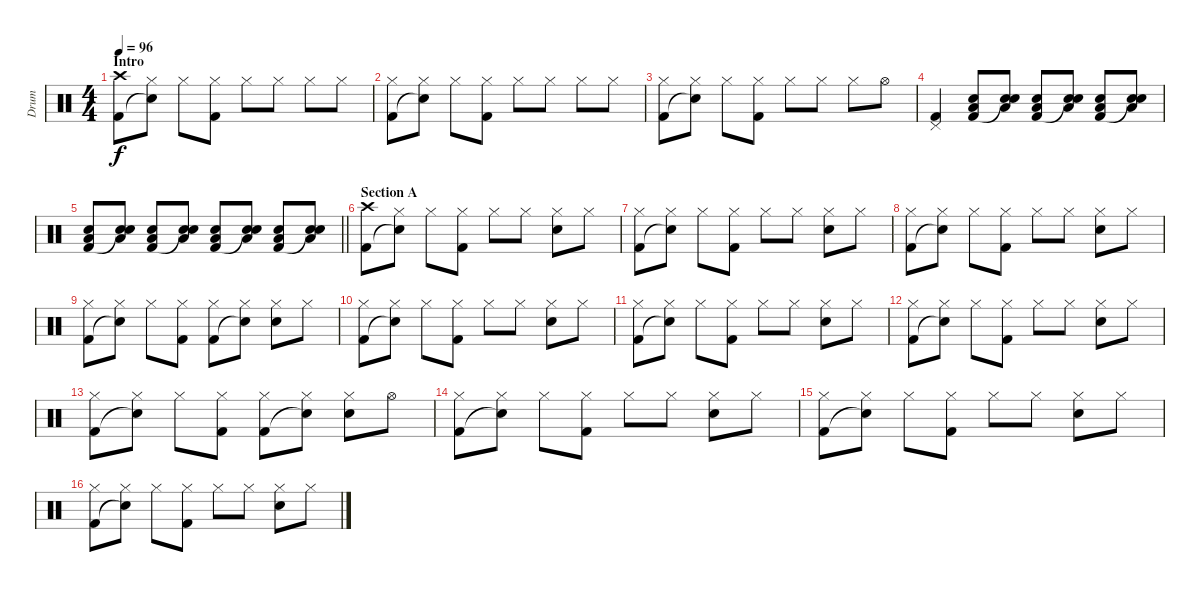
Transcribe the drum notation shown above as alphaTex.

\track ("Drum" "Drum") {instrument percussion}
\staff {score}
\articulation defaults
\ts (4 4)
\section ("" "Intro")
\tempo 96
\clef neutral
\ks c
("Crash high (hit)" "Kick (hit) 2").8{dy f} ("Hi-Hat (closed)" "Snare (hit)"{t}).8 "Hi-Hat (closed)".8 ("Hi-Hat (closed)" "Kick (hit) 2").8 "Hi-Hat (closed)".8 "Hi-Hat (closed)".8 "Hi-Hat (closed)".8 "Hi-Hat (closed)".8 |
("Hi-Hat (closed)" "Kick (hit) 2").8 ("Hi-Hat (closed)" "Snare (hit)"{t}).8 "Hi-Hat (closed)".8 ("Hi-Hat (closed)" "Kick (hit) 2").8 "Hi-Hat (closed)".8 "Hi-Hat (closed)".8 "Hi-Hat (closed)".8 "Hi-Hat (closed)".8 |
("Hi-Hat (closed)" "Kick (hit) 2").8 ("Hi-Hat (closed)" "Snare (hit)"{t}).8 "Hi-Hat (closed)".8 ("Hi-Hat (closed)" "Kick (hit) 2").8 "Hi-Hat (closed)".8 "Hi-Hat (closed)".8 "Hi-Hat (closed)".8 "Hi-Hat (open)".8 |
("Pedal Hi-Hat (hit)" "Kick (hit) 2").4 ("Snare (hit) 2" "Low Tom (hit)" "Kick (hit) 2").8 ("Snare (hit) 2" "Low Tom (hit)" "Snare (hit)"{t}).8 ("Snare (hit) 2" "Low Tom (hit)" "Kick (hit) 2").8 ("Snare (hit) 2" "Low Tom (hit)" "Snare (hit)"{t}).8 ("Snare (hit) 2" "Low Tom (hit)" "Kick (hit) 2").8 ("Snare (hit) 2" "Low Tom (hit)" "Snare (hit)"{t}).8 |
\barLineRight lightlight
("Snare (hit) 2" "Low Tom (hit)" "Kick (hit) 2").8 ("Snare (hit) 2" "Low Tom (hit)" "Snare (hit)"{t}).8 ("Snare (hit) 2" "Low Tom (hit)" "Kick (hit) 2").8 ("Snare (hit) 2" "Low Tom (hit)" "Snare (hit)"{t}).8 ("Snare (hit) 2" "Low Tom (hit)" "Kick (hit) 2").8 ("Snare (hit) 2" "Low Tom (hit)" "Snare (hit)"{t}).8 ("Snare (hit) 2" "Low Tom (hit)" "Kick (hit) 2").8 ("Snare (hit) 2" "Low Tom (hit)" "Snare (hit)"{t}).8 |
\section ("" "Section A")
("Crash high (hit)" "Kick (hit) 2").8 ("Hi-Hat (closed)" "Snare (hit)"{t}).8 "Hi-Hat (closed)".8 ("Hi-Hat (closed)" "Kick (hit) 2").8 "Hi-Hat (closed)".8 "Hi-Hat (closed)".8 ("Hi-Hat (closed)" "Snare (hit) 2").8 "Hi-Hat (closed)".8 |
("Hi-Hat (closed)" "Kick (hit) 2").8 ("Hi-Hat (closed)" "Snare (hit)"{t}).8 "Hi-Hat (closed)".8 ("Hi-Hat (closed)" "Kick (hit) 2").8 "Hi-Hat (closed)".8 "Hi-Hat (closed)".8 ("Hi-Hat (closed)" "Snare (hit) 2").8 "Hi-Hat (closed)".8 |
("Hi-Hat (closed)" "Kick (hit) 2").8 ("Hi-Hat (closed)" "Snare (hit)"{t}).8 "Hi-Hat (closed)".8 ("Hi-Hat (closed)" "Kick (hit) 2").8 "Hi-Hat (closed)".8 "Hi-Hat (closed)".8 ("Hi-Hat (closed)" "Snare (hit) 2").8 "Hi-Hat (closed)".8 |
("Hi-Hat (closed)" "Kick (hit) 2").8 ("Hi-Hat (closed)" "Snare (hit)"{t}).8 "Hi-Hat (closed)".8 ("Hi-Hat (closed)" "Kick (hit) 2").8 ("Hi-Hat (closed)" "Kick (hit) 2").8 ("Hi-Hat (closed)" "Snare (hit)"{t}).8 ("Hi-Hat (closed)" "Snare (hit) 2").8 "Hi-Hat (closed)".8 |
("Hi-Hat (closed)" "Kick (hit) 2").8 ("Hi-Hat (closed)" "Snare (hit)"{t}).8 "Hi-Hat (closed)".8 ("Hi-Hat (closed)" "Kick (hit) 2").8 "Hi-Hat (closed)".8 "Hi-Hat (closed)".8 ("Hi-Hat (closed)" "Snare (hit) 2").8 "Hi-Hat (closed)".8 |
("Hi-Hat (closed)" "Kick (hit) 2").8 ("Hi-Hat (closed)" "Snare (hit)"{t}).8 "Hi-Hat (closed)".8 ("Hi-Hat (closed)" "Kick (hit) 2").8 "Hi-Hat (closed)".8 "Hi-Hat (closed)".8 ("Hi-Hat (closed)" "Snare (hit) 2").8 "Hi-Hat (closed)".8 |
("Hi-Hat (closed)" "Kick (hit) 2").8 ("Hi-Hat (closed)" "Snare (hit)"{t}).8 "Hi-Hat (closed)".8 ("Hi-Hat (closed)" "Kick (hit) 2").8 "Hi-Hat (closed)".8 "Hi-Hat (closed)".8 ("Hi-Hat (closed)" "Snare (hit) 2").8 "Hi-Hat (closed)".8 |
("Hi-Hat (closed)" "Kick (hit) 2").8 ("Hi-Hat (closed)" "Snare (hit)"{t}).8 "Hi-Hat (closed)".8 ("Hi-Hat (closed)" "Kick (hit) 2").8 ("Hi-Hat (closed)" "Kick (hit) 2").8 ("Hi-Hat (closed)" "Snare (hit)"{t}).8 ("Hi-Hat (closed)" "Snare (hit) 2").8 "Hi-Hat (open)".8 |
("Hi-Hat (closed)" "Kick (hit) 2").8 ("Hi-Hat (closed)" "Snare (hit)"{t}).8 "Hi-Hat (closed)".8 ("Hi-Hat (closed)" "Kick (hit) 2").8 "Hi-Hat (closed)".8 "Hi-Hat (closed)".8 ("Hi-Hat (closed)" "Snare (hit) 2").8 "Hi-Hat (closed)".8 |
("Hi-Hat (closed)" "Kick (hit) 2").8 ("Hi-Hat (closed)" "Snare (hit)"{t}).8 "Hi-Hat (closed)".8 ("Hi-Hat (closed)" "Kick (hit) 2").8 "Hi-Hat (closed)".8 "Hi-Hat (closed)".8 ("Hi-Hat (closed)" "Snare (hit) 2").8 "Hi-Hat (closed)".8 |
("Hi-Hat (closed)" "Kick (hit) 2").8 ("Hi-Hat (closed)" "Snare (hit)"{t}).8 "Hi-Hat (closed)".8 ("Hi-Hat (closed)" "Kick (hit) 2").8 "Hi-Hat (closed)".8 "Hi-Hat (closed)".8 ("Hi-Hat (closed)" "Snare (hit) 2").8 "Hi-Hat (closed)".8
